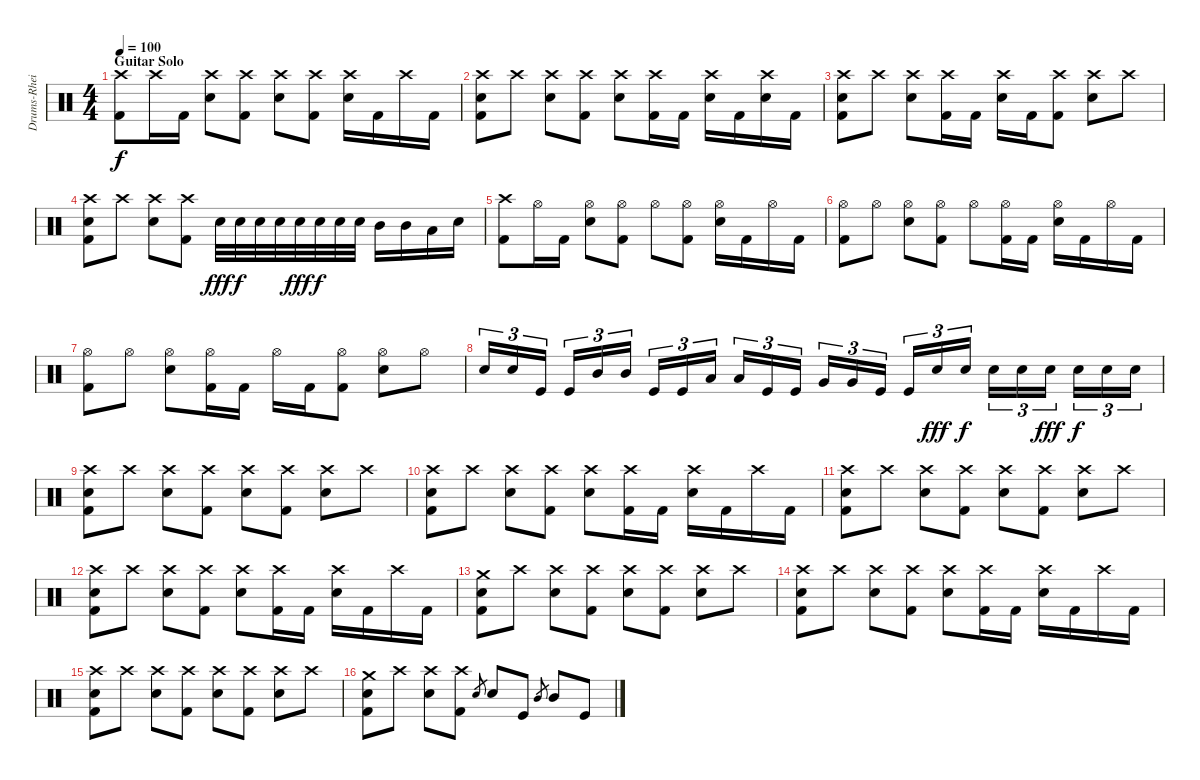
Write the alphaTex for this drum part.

\track ("Drums-Rhein" "Drums-Rhei") {instrument percussion}
\staff {score}
\articulation defaults
\ts (4 4)
\section ("" "Guitar Solo")
\tempo 100
\clef neutral
\ks c
("Crash high (hit)" "Kick (hit) 2").8{dy f} "Crash high (hit)".16 "Kick (hit) 2".16 ("Crash high (hit)" "Snare (hit) 2").8 ("Crash high (hit)" "Kick (hit) 2").8 ("Crash high (hit)" "Snare (hit) 2").8 ("Crash high (hit)" "Kick (hit) 2").8 ("Crash high (hit)" "Snare (hit) 2").16 "Kick (hit) 2".16 "Crash high (hit)".16 "Kick (hit) 2".16 |
("Crash high (hit)" "Snare (hit) 2" "Kick (hit) 2").8 "Crash high (hit)".8 ("Crash high (hit)" "Snare (hit) 2").8 ("Crash high (hit)" "Kick (hit) 2").8 ("Crash high (hit)" "Snare (hit) 2").8 ("Crash high (hit)" "Kick (hit) 2").16 "Kick (hit) 2".16 ("Crash high (hit)" "Snare (hit) 2").16 "Kick (hit) 2".16 ("Crash high (hit)" "Snare (hit) 2").16 "Kick (hit) 2".16 |
("Crash high (hit)" "Snare (hit) 2" "Kick (hit) 2").8 "Crash high (hit)".8 ("Crash high (hit)" "Snare (hit) 2").8 ("Crash high (hit)" "Kick (hit) 2").16 "Kick (hit) 2".16 ("Crash high (hit)" "Snare (hit) 2").16 "Kick (hit) 2".16 ("Crash high (hit)" "Kick (hit) 2").8 ("Crash high (hit)" "Snare (hit) 2").8 "Crash high (hit)".8 |
("Crash high (hit)" "Snare (hit) 2" "Kick (hit) 2").8 "Crash high (hit)".8 ("Crash high (hit)" "Snare (hit) 2").8 ("Crash high (hit)" "Kick (hit) 2").8 "Snare (hit) 2".32{dy fff} "Snare (hit) 2".32{dy f} "Snare (hit) 2".32 "Snare (hit) 2".32 "Snare (hit) 2".32{dy fff} "Snare (hit) 2".32{dy f} "Snare (hit) 2".32 "Snare (hit) 2".32 "Mid Tom (hit)".16 "Mid Tom (hit)".16 "Low Tom (hit)".16 "Snare (hit) 2".16 |
("Crash high (hit)" "Kick (hit) 2").8 "Hi-Hat (open)".16 "Kick (hit) 2".16 ("Hi-Hat (open)" "Snare (hit) 2").8 ("Hi-Hat (open)" "Kick (hit) 2").8 "Hi-Hat (open)".8 ("Hi-Hat (open)" "Kick (hit) 2").8 ("Hi-Hat (open)" "Snare (hit) 2").16 "Kick (hit) 2".16 "Hi-Hat (open)".16 "Kick (hit) 2".16 |
("Hi-Hat (open)" "Kick (hit) 2").8 "Hi-Hat (open)".8 ("Hi-Hat (open)" "Snare (hit) 2").8 ("Hi-Hat (open)" "Kick (hit) 2").8 "Hi-Hat (open)".8 ("Hi-Hat (open)" "Kick (hit) 2").16 "Kick (hit) 2".16 ("Hi-Hat (open)" "Snare (hit) 2").16 "Kick (hit) 2".16 "Hi-Hat (open)".16 "Kick (hit) 2".16 |
("Hi-Hat (open)" "Kick (hit) 2").8 "Hi-Hat (open)".8 ("Hi-Hat (open)" "Snare (hit) 2").8 ("Hi-Hat (open)" "Kick (hit) 2").16 "Kick (hit) 2".16 "Hi-Hat (open)".16 "Kick (hit) 2".16 ("Hi-Hat (open)" "Kick (hit) 2").8 ("Hi-Hat (open)" "Snare (hit) 2").8 "Hi-Hat (open)".8 |
"Snare (hit) 2".16{tu (3 2)} "Snare (hit) 2".16{tu (3 2)} "Kick (hit)".16{tu (3 2)} "Kick (hit)".16{tu (3 2)} "Mid Tom (hit)".16{tu (3 2)} "Mid Tom (hit)".16{tu (3 2)} "Kick (hit)".16{tu (3 2)} "Kick (hit)".16{tu (3 2)} "Low Tom (hit)".16{tu (3 2)} "Low Tom (hit)".16{tu (3 2)} "Kick (hit)".16{tu (3 2)} "Kick (hit)".16{tu (3 2)} "Very Low Tom (hit)".16{tu (3 2)} "Very Low Tom (hit)".16{tu (3 2)} "Kick (hit)".16{tu (3 2)} "Kick (hit)".16{tu (3 2)} "Snare (hit) 2".16{tu (3 2) dy fff} "Snare (hit) 2".16{tu (3 2) dy f} "Snare (hit) 2".16{tu (3 2)} "Snare (hit) 2".16{tu (3 2)} "Snare (hit) 2".16{tu (3 2) dy fff} "Snare (hit) 2".16{tu (3 2) dy f} "Snare (hit) 2".16{tu (3 2)} "Snare (hit) 2".16{tu (3 2)} |
("Crash high (hit)" "Snare (hit) 2" "Kick (hit) 2").8 "Crash high (hit)".8 ("Crash high (hit)" "Snare (hit) 2").8 ("Crash high (hit)" "Kick (hit) 2").8 ("Crash high (hit)" "Snare (hit) 2").8 ("Crash high (hit)" "Kick (hit) 2").8 ("Crash high (hit)" "Snare (hit) 2").8 "Crash high (hit)".8 |
("Crash high (hit)" "Snare (hit) 2" "Kick (hit) 2").8 "Crash high (hit)".8 ("Crash high (hit)" "Snare (hit) 2").8 ("Crash high (hit)" "Kick (hit) 2").8 ("Crash high (hit)" "Snare (hit) 2").8 ("Crash high (hit)" "Kick (hit) 2").16 "Kick (hit) 2".16 ("Crash high (hit)" "Snare (hit) 2").16 "Kick (hit) 2".16 "Crash high (hit)".16 "Kick (hit) 2".16 |
("Crash high (hit)" "Snare (hit) 2" "Kick (hit) 2").8 "Crash high (hit)".8 ("Crash high (hit)" "Snare (hit) 2").8 ("Crash high (hit)" "Kick (hit) 2").8 ("Crash high (hit)" "Snare (hit) 2").8 ("Crash high (hit)" "Kick (hit) 2").8 ("Crash high (hit)" "Snare (hit) 2").8 "Crash high (hit)".8 |
("Crash high (hit)" "Snare (hit) 2" "Kick (hit) 2").8 "Crash high (hit)".8 ("Crash high (hit)" "Snare (hit) 2").8 ("Crash high (hit)" "Kick (hit) 2").8 ("Crash high (hit)" "Snare (hit) 2").8 ("Crash high (hit)" "Kick (hit) 2").16 "Kick (hit) 2".16 ("Crash high (hit)" "Snare (hit) 2").16 "Kick (hit) 2".16 "Crash high (hit)".16 "Kick (hit) 2".16 |
("Crash medium (hit)" "Snare (hit) 2" "Kick (hit) 2").8 "Crash high (hit)".8 ("Crash high (hit)" "Snare (hit) 2").8 ("Crash high (hit)" "Kick (hit) 2").8 ("Crash high (hit)" "Snare (hit) 2").8 ("Crash high (hit)" "Kick (hit) 2").8 ("Crash high (hit)" "Snare (hit) 2").8 "Crash high (hit)".8 |
("Crash high (hit)" "Snare (hit) 2" "Kick (hit) 2").8 "Crash high (hit)".8 ("Crash high (hit)" "Snare (hit) 2").8 ("Crash high (hit)" "Kick (hit) 2").8 ("Crash high (hit)" "Snare (hit) 2").8 ("Crash high (hit)" "Kick (hit) 2").16 "Kick (hit) 2".16 ("Crash high (hit)" "Snare (hit) 2").16 "Kick (hit) 2".16 "Crash high (hit)".16 "Kick (hit) 2".16 |
("Crash high (hit)" "Snare (hit) 2" "Kick (hit) 2").8 "Crash high (hit)".8 ("Crash high (hit)" "Snare (hit) 2").8 ("Crash high (hit)" "Kick (hit) 2").8 ("Crash high (hit)" "Snare (hit) 2").8 ("Crash high (hit)" "Kick (hit) 2").8 ("Crash high (hit)" "Snare (hit) 2").8 "Crash high (hit)".8 |
("Crash medium (hit)" "Snare (hit) 2" "Kick (hit) 2").8 "Crash high (hit)".8 ("Crash high (hit)" "Snare (hit) 2").8 ("Crash high (hit)" "Kick (hit) 2").8 "Snare (hit) 2".8{gr} "Snare (hit) 2".8 "Kick (hit)".8 "Mid Tom (hit)".8{gr} "Mid Tom (hit)".8 "Kick (hit)".8
